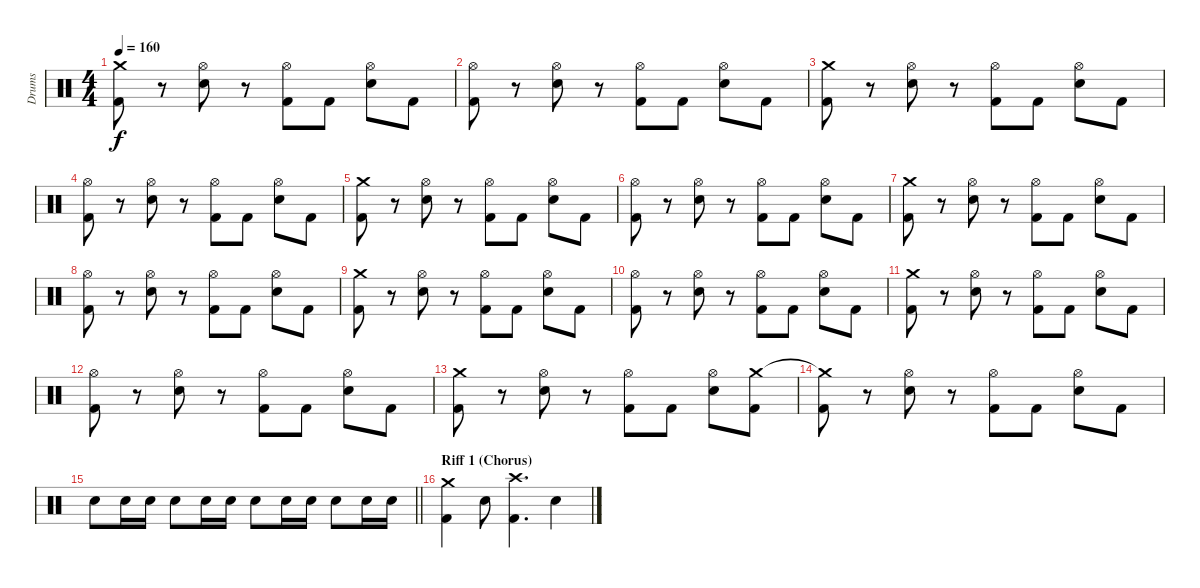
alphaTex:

\track ("Drums" "Drums") {instrument percussion}
\staff {score}
\articulation defaults
\ts (4 4)
\tempo 160
\clef neutral
\ks c
("Crash medium (hit)" "Kick (hit) 2").8{dy f} r.8 ("Hi-Hat (open)" "Snare (hit) 2").8 r.8 ("Hi-Hat (open)" "Kick (hit) 2").8 "Kick (hit) 2".8 ("Hi-Hat (open)" "Snare (hit) 2").8 "Kick (hit) 2".8 |
("Hi-Hat (open)" "Kick (hit) 2").8 r.8 ("Hi-Hat (open)" "Snare (hit) 2").8 r.8 ("Hi-Hat (open)" "Kick (hit) 2").8 "Kick (hit) 2".8 ("Hi-Hat (open)" "Snare (hit) 2").8 "Kick (hit) 2".8 |
("Crash medium (hit)" "Kick (hit) 2").8 r.8 ("Hi-Hat (open)" "Snare (hit) 2").8 r.8 ("Hi-Hat (open)" "Kick (hit) 2").8 "Kick (hit) 2".8 ("Hi-Hat (open)" "Snare (hit) 2").8 "Kick (hit) 2".8 |
("Hi-Hat (open)" "Kick (hit) 2").8 r.8 ("Hi-Hat (open)" "Snare (hit) 2").8 r.8 ("Hi-Hat (open)" "Kick (hit) 2").8 "Kick (hit) 2".8 ("Hi-Hat (open)" "Snare (hit) 2").8 "Kick (hit) 2".8 |
("Crash medium (hit)" "Kick (hit) 2").8 r.8 ("Hi-Hat (open)" "Snare (hit) 2").8 r.8 ("Hi-Hat (open)" "Kick (hit) 2").8 "Kick (hit) 2".8 ("Hi-Hat (open)" "Snare (hit) 2").8 "Kick (hit) 2".8 |
("Hi-Hat (open)" "Kick (hit) 2").8 r.8 ("Hi-Hat (open)" "Snare (hit) 2").8 r.8 ("Hi-Hat (open)" "Kick (hit) 2").8 "Kick (hit) 2".8 ("Hi-Hat (open)" "Snare (hit) 2").8 "Kick (hit) 2".8 |
("Crash medium (hit)" "Kick (hit) 2").8 r.8 ("Hi-Hat (open)" "Snare (hit) 2").8 r.8 ("Hi-Hat (open)" "Kick (hit) 2").8 "Kick (hit) 2".8 ("Hi-Hat (open)" "Snare (hit) 2").8 "Kick (hit) 2".8 |
("Hi-Hat (open)" "Kick (hit) 2").8 r.8 ("Hi-Hat (open)" "Snare (hit) 2").8 r.8 ("Hi-Hat (open)" "Kick (hit) 2").8 "Kick (hit) 2".8 ("Hi-Hat (open)" "Snare (hit) 2").8 "Kick (hit) 2".8 |
("Crash medium (hit)" "Kick (hit) 2").8 r.8 ("Hi-Hat (open)" "Snare (hit) 2").8 r.8 ("Hi-Hat (open)" "Kick (hit) 2").8 "Kick (hit) 2".8 ("Hi-Hat (open)" "Snare (hit) 2").8 "Kick (hit) 2".8 |
("Hi-Hat (open)" "Kick (hit) 2").8 r.8 ("Hi-Hat (open)" "Snare (hit) 2").8 r.8 ("Hi-Hat (open)" "Kick (hit) 2").8 "Kick (hit) 2".8 ("Hi-Hat (open)" "Snare (hit) 2").8 "Kick (hit) 2".8 |
("Crash medium (hit)" "Kick (hit) 2").8 r.8 ("Hi-Hat (open)" "Snare (hit) 2").8 r.8 ("Hi-Hat (open)" "Kick (hit) 2").8 "Kick (hit) 2".8 ("Hi-Hat (open)" "Snare (hit) 2").8 "Kick (hit) 2".8 |
("Hi-Hat (open)" "Kick (hit) 2").8 r.8 ("Hi-Hat (open)" "Snare (hit) 2").8 r.8 ("Hi-Hat (open)" "Kick (hit) 2").8 "Kick (hit) 2".8 ("Hi-Hat (open)" "Snare (hit) 2").8 "Kick (hit) 2".8 |
("Crash medium (hit)" "Kick (hit) 2").8 r.8 ("Hi-Hat (open)" "Snare (hit) 2").8 r.8 ("Hi-Hat (open)" "Kick (hit) 2").8 "Kick (hit) 2".8 ("Hi-Hat (open)" "Snare (hit) 2").8 ("Crash medium (hit)" "Kick (hit) 2").8 |
("Crash medium (hit)"{t} "Kick (hit) 2").8 r.8 ("Hi-Hat (open)" "Snare (hit) 2").8 r.8 ("Hi-Hat (open)" "Kick (hit) 2").8 "Kick (hit) 2".8 ("Hi-Hat (open)" "Snare (hit) 2").8 "Kick (hit) 2".8 |
\barLineRight lightlight "Snare (hit) 2".8 "Snare (hit) 2".16 "Snare (hit) 2".16 "Snare (hit) 2".8 "Snare (hit) 2".16 "Snare (hit) 2".16 "Snare (hit) 2".8 "Snare (hit) 2".16 "Snare (hit) 2".16 "Snare (hit) 2".8 "Snare (hit) 2".16 "Snare (hit) 2".16
|
\section ("" "Riff 1 (Chorus)")
("Crash medium (hit)" "Kick (hit) 2").4 "Snare (hit) 2".8 ("Crash high (hit)" "Kick (hit) 2").4{d} "Snare (hit) 2".4
